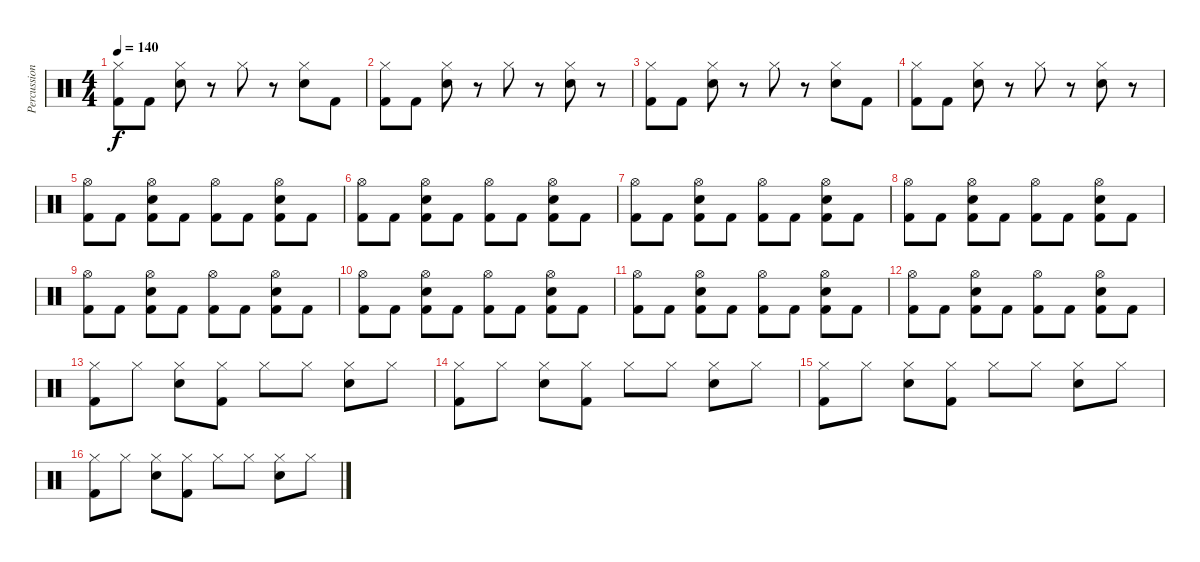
\track ("Percussion" "Percussion") {instrument percussion}
\staff {score}
\articulation defaults
\ts (4 4)
\tempo 140
\clef neutral
\ks c
("Hi-Hat (closed)" "Kick (hit) 2").8{dy f} "Kick (hit) 2".8 ("Hi-Hat (closed)" "Snare (hit) 2").8 r.8 "Hi-Hat (closed)".8 r.8 ("Hi-Hat (closed)" "Snare (hit) 2").8 "Kick (hit) 2".8 |
("Hi-Hat (closed)" "Kick (hit) 2").8 "Kick (hit) 2".8 ("Hi-Hat (closed)" "Snare (hit) 2").8 r.8 "Hi-Hat (closed)".8 r.8 ("Hi-Hat (closed)" "Snare (hit) 2").8 r.8 |
("Hi-Hat (closed)" "Kick (hit) 2").8 "Kick (hit) 2".8 ("Hi-Hat (closed)" "Snare (hit) 2").8 r.8 "Hi-Hat (closed)".8 r.8 ("Hi-Hat (closed)" "Snare (hit) 2").8 "Kick (hit) 2".8 |
("Hi-Hat (closed)" "Kick (hit) 2").8 "Kick (hit) 2".8 ("Hi-Hat (closed)" "Snare (hit) 2").8 r.8 "Hi-Hat (closed)".8 r.8 ("Hi-Hat (closed)" "Snare (hit) 2").8 r.8 |
("Hi-Hat (open)" "Kick (hit) 2").8 "Kick (hit) 2".8 ("Hi-Hat (open)" "Snare (hit) 2" "Kick (hit) 2").8 "Kick (hit) 2".8 ("Hi-Hat (open)" "Kick (hit) 2").8 "Kick (hit) 2".8 ("Hi-Hat (open)" "Snare (hit) 2" "Kick (hit) 2").8 "Kick (hit) 2".8 |
("Hi-Hat (open)" "Kick (hit) 2").8 "Kick (hit) 2".8 ("Hi-Hat (open)" "Snare (hit) 2" "Kick (hit) 2").8 "Kick (hit) 2".8 ("Hi-Hat (open)" "Kick (hit) 2").8 "Kick (hit) 2".8 ("Hi-Hat (open)" "Snare (hit) 2" "Kick (hit) 2").8 "Kick (hit) 2".8 |
("Hi-Hat (open)" "Kick (hit) 2").8 "Kick (hit) 2".8 ("Hi-Hat (open)" "Snare (hit) 2" "Kick (hit) 2").8 "Kick (hit) 2".8 ("Hi-Hat (open)" "Kick (hit) 2").8 "Kick (hit) 2".8 ("Hi-Hat (open)" "Snare (hit) 2" "Kick (hit) 2").8 "Kick (hit) 2".8 |
("Hi-Hat (open)" "Kick (hit) 2").8 "Kick (hit) 2".8 ("Hi-Hat (open)" "Snare (hit) 2" "Kick (hit) 2").8 "Kick (hit) 2".8 ("Hi-Hat (open)" "Kick (hit) 2").8 "Kick (hit) 2".8 ("Hi-Hat (open)" "Snare (hit) 2" "Kick (hit) 2").8 "Kick (hit) 2".8 |
("Hi-Hat (open)" "Kick (hit) 2").8 "Kick (hit) 2".8 ("Hi-Hat (open)" "Snare (hit) 2" "Kick (hit) 2").8 "Kick (hit) 2".8 ("Hi-Hat (open)" "Kick (hit) 2").8 "Kick (hit) 2".8 ("Hi-Hat (open)" "Snare (hit) 2" "Kick (hit) 2").8 "Kick (hit) 2".8 |
("Hi-Hat (open)" "Kick (hit) 2").8 "Kick (hit) 2".8 ("Hi-Hat (open)" "Snare (hit) 2" "Kick (hit) 2").8 "Kick (hit) 2".8 ("Hi-Hat (open)" "Kick (hit) 2").8 "Kick (hit) 2".8 ("Hi-Hat (open)" "Snare (hit) 2" "Kick (hit) 2").8 "Kick (hit) 2".8 |
("Hi-Hat (open)" "Kick (hit) 2").8 "Kick (hit) 2".8 ("Hi-Hat (open)" "Snare (hit) 2" "Kick (hit) 2").8 "Kick (hit) 2".8 ("Hi-Hat (open)" "Kick (hit) 2").8 "Kick (hit) 2".8 ("Hi-Hat (open)" "Snare (hit) 2" "Kick (hit) 2").8 "Kick (hit) 2".8 |
("Hi-Hat (open)" "Kick (hit) 2").8 "Kick (hit) 2".8 ("Hi-Hat (open)" "Snare (hit) 2" "Kick (hit) 2").8 "Kick (hit) 2".8 ("Hi-Hat (open)" "Kick (hit) 2").8 "Kick (hit) 2".8 ("Hi-Hat (open)" "Snare (hit) 2" "Kick (hit) 2").8 "Kick (hit) 2".8 |
("Hi-Hat (closed)" "Kick (hit) 2").8 "Hi-Hat (closed)".8 ("Hi-Hat (closed)" "Snare (hit) 2").8 ("Hi-Hat (closed)" "Kick (hit) 2").8 "Hi-Hat (closed)".8 "Hi-Hat (closed)".8 ("Hi-Hat (closed)" "Snare (hit) 2").8 "Hi-Hat (closed)".8 |
("Hi-Hat (closed)" "Kick (hit) 2").8 "Hi-Hat (closed)".8 ("Hi-Hat (closed)" "Snare (hit) 2").8 ("Hi-Hat (closed)" "Kick (hit) 2").8 "Hi-Hat (closed)".8 "Hi-Hat (closed)".8 ("Hi-Hat (closed)" "Snare (hit) 2").8 "Hi-Hat (closed)".8 |
("Hi-Hat (closed)" "Kick (hit) 2").8 "Hi-Hat (closed)".8 ("Hi-Hat (closed)" "Snare (hit) 2").8 ("Hi-Hat (closed)" "Kick (hit) 2").8 "Hi-Hat (closed)".8 "Hi-Hat (closed)".8 ("Hi-Hat (closed)" "Snare (hit) 2").8 "Hi-Hat (closed)".8 |
("Hi-Hat (closed)" "Kick (hit) 2").8 "Hi-Hat (closed)".8 ("Hi-Hat (closed)" "Snare (hit) 2").8 ("Hi-Hat (closed)" "Kick (hit) 2").8 "Hi-Hat (closed)".8 "Hi-Hat (closed)".8 ("Hi-Hat (closed)" "Snare (hit) 2").8 "Hi-Hat (closed)".8
